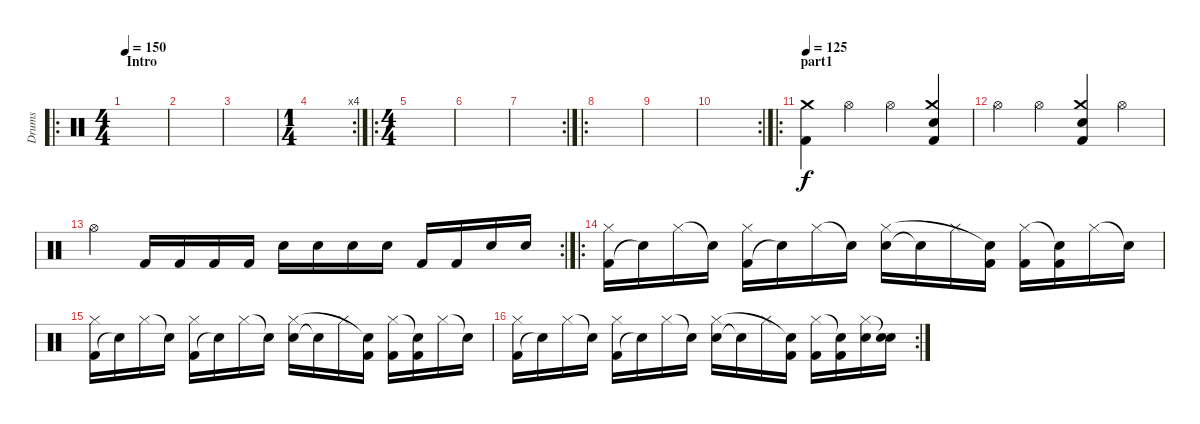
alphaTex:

\track ("Drums" "Drums") {instrument percussion}
\staff {score}
\articulation defaults
\ro
\ts (4 4)
\section ("" "Intro")
\tempo 150
\tempo 85
\tempo 150
\clef neutral
\ks c
|
|
|
\rc 4
\ts (1 4)
|
\ro
\ts (4 4)
|
|
\rc 2
|
\ro
|
|
\rc 2
|
\ro
\section ("" "part1")
\tempo 125
("Kick (hit) 2" "Crash medium (hit)").4 "Hi-Hat (open)".4 "Hi-Hat (open)".4 ("Kick (hit) 2" "Snare (hit) 2" "Crash medium (hit)").4 |
"Hi-Hat (open)".4 "Hi-Hat (open)".4 ("Kick (hit) 2" "Snare (hit) 2" "Crash medium (hit)").4 "Hi-Hat (open)".4 |
\rc 2 "Hi-Hat (open)".4 "Kick (hit) 2".16 "Kick (hit) 2".16 "Kick (hit) 2".16 "Kick (hit) 2".16 "Snare (hit) 2".16 "Snare (hit) 2".16 "Snare (hit) 2".16 "Snare (hit) 2".16 "Kick (hit) 2".16 "Kick (hit) 2".16 "Electric Snare (hit)".16 "Electric Snare (hit)".16
|
\ro
("Kick (hit) 2" "Hi-Hat (closed)").16 "Snare (hit)"{t}.16 "Hi-Hat (closed)".16 "Snare (hit)"{t}.16 ("Kick (hit) 2" "Hi-Hat (closed)").16 "Snare (hit)"{t}.16 "Hi-Hat (closed)".16 "Snare (hit)"{t}.16 ("Snare (hit) 2" "Hi-Hat (closed)").16 "Snare (hit)"{t}.16 "Hi-Hat (closed)".16 ("Kick (hit) 2" "Snare (hit)"{t}).16 ("Kick (hit) 2" "Hi-Hat (closed)").16 ("Kick (hit) 2" "Snare (hit)"{t}).16 "Hi-Hat (closed)".16 "Snare (hit)"{t}.16 |
("Kick (hit) 2" "Hi-Hat (closed)").16 "Snare (hit)"{t}.16 "Hi-Hat (closed)".16 "Snare (hit)"{t}.16 ("Kick (hit) 2" "Hi-Hat (closed)").16 "Snare (hit)"{t}.16 "Hi-Hat (closed)".16 "Snare (hit)"{t}.16 ("Snare (hit) 2" "Hi-Hat (closed)").16 "Snare (hit)"{t}.16 "Hi-Hat (closed)".16 ("Kick (hit) 2" "Snare (hit)"{t}).16 ("Kick (hit) 2" "Hi-Hat (closed)").16 ("Kick (hit) 2" "Snare (hit)"{t}).16 "Hi-Hat (closed)".16 "Snare (hit)"{t}.16 |
\rc 2
("Kick (hit) 2" "Hi-Hat (closed)").16 "Snare (hit)"{t}.16 "Hi-Hat (closed)".16 "Snare (hit)"{t}.16 ("Kick (hit) 2" "Hi-Hat (closed)").16 "Snare (hit)"{t}.16 "Hi-Hat (closed)".16 "Snare (hit)"{t}.16 ("Snare (hit) 2" "Hi-Hat (closed)").16 "Snare (hit)"{t}.16 "Hi-Hat (closed)".16 ("Kick (hit) 2" "Snare (hit)"{t}).16 ("Kick (hit) 2" "Hi-Hat (closed)").16 ("Kick (hit) 2" "Snare (hit)"{t}).16 ("Snare (hit) 2" "Hi-Hat (closed)").16 ("Snare (hit) 2" "Snare (hit)"{t}).16
